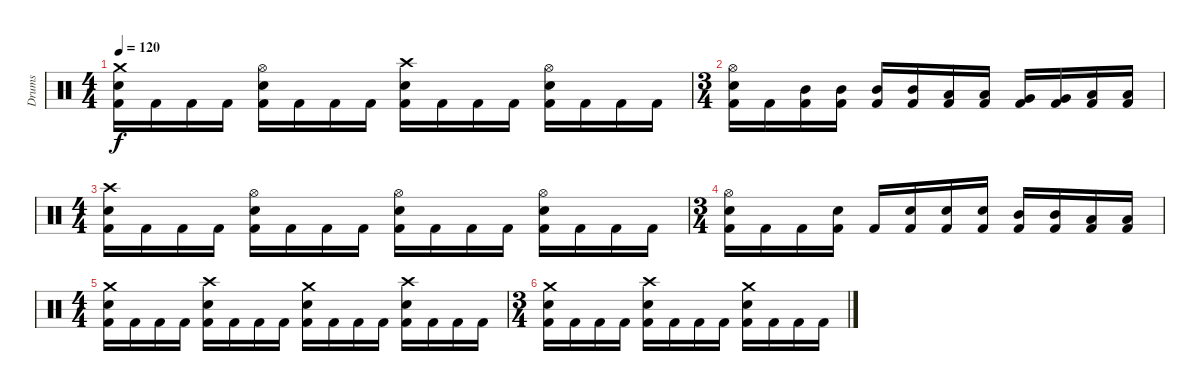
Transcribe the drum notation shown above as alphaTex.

\track ("Drums" "Drums") {instrument percussion}
\staff {score}
\articulation defaults
\ts (4 4)
\tempo 120
\clef neutral
\ks c
("Crash medium (hit)" "Snare (hit) 2" "Kick (hit) 2").16{dy f} "Kick (hit) 2".16 "Kick (hit) 2".16 "Kick (hit) 2".16 ("Hi-Hat (open)" "Snare (hit) 2" "Kick (hit) 2").16 "Kick (hit) 2".16 "Kick (hit) 2".16 "Kick (hit) 2".16 ("Crash high (hit)" "Snare (hit) 2" "Kick (hit) 2").16 "Kick (hit) 2".16 "Kick (hit) 2".16 "Kick (hit) 2".16 ("Hi-Hat (open)" "Snare (hit) 2" "Kick (hit) 2").16 "Kick (hit) 2".16 "Kick (hit) 2".16 "Kick (hit) 2".16 |
\ts (3 4)
("Hi-Hat (open)" "Snare (hit) 2" "Kick (hit) 2").16 "Kick (hit) 2".16 ("Mid Tom (hit)" "Kick (hit) 2").16 ("Mid Tom (hit)" "Kick (hit) 2").16 ("Mid Tom (hit)" "Kick (hit) 2").16 ("Mid Tom (hit)" "Kick (hit) 2").16 ("Low Tom (hit)" "Kick (hit) 2").16 ("Low Tom (hit)" "Kick (hit) 2").16 ("Very Low Tom (hit)" "Kick (hit) 2").16 ("Very Low Tom (hit)" "Kick (hit) 2").16 ("Low Floor Tom (hit)" "Kick (hit) 2").16 ("Low Floor Tom (hit)" "Kick (hit) 2").16 |
\ts (4 4)
("Crash high (hit)" "Snare (hit) 2" "Kick (hit) 2").16 "Kick (hit) 2".16 "Kick (hit) 2".16 "Kick (hit) 2".16 ("Hi-Hat (open)" "Snare (hit) 2" "Kick (hit) 2").16 "Kick (hit) 2".16 "Kick (hit) 2".16 "Kick (hit) 2".16 ("Hi-Hat (open)" "Snare (hit) 2" "Kick (hit) 2").16 "Kick (hit) 2".16 "Kick (hit) 2".16 "Kick (hit) 2".16 ("Hi-Hat (open)" "Snare (hit) 2" "Kick (hit) 2").16 "Kick (hit) 2".16 "Kick (hit) 2".16 "Kick (hit) 2".16 |
\ts (3 4)
("Hi-Hat (open)" "Snare (hit) 2" "Kick (hit) 2").16 "Kick (hit) 2".16 "Kick (hit) 2".16 ("Snare (hit) 2" "Kick (hit) 2").16 "Kick (hit) 2".16 ("Snare (hit) 2" "Kick (hit) 2").16 ("Snare (hit) 2" "Kick (hit) 2").16 ("Snare (hit) 2" "Kick (hit) 2").16 ("Mid Tom (hit)" "Kick (hit) 2").16 ("Mid Tom (hit)" "Kick (hit) 2").16 ("Low Tom (hit)" "Kick (hit) 2").16 ("Low Tom (hit)" "Kick (hit) 2").16 |
\ts (4 4)
("Crash medium (hit)" "Snare (hit) 2" "Kick (hit) 2").16 "Kick (hit) 2".16 "Kick (hit) 2".16 "Kick (hit) 2".16 ("Crash high (hit)" "Snare (hit) 2" "Kick (hit) 2").16 "Kick (hit) 2".16 "Kick (hit) 2".16 "Kick (hit) 2".16 ("Crash medium (hit)" "Snare (hit) 2" "Kick (hit) 2").16 "Kick (hit) 2".16 "Kick (hit) 2".16 "Kick (hit) 2".16 ("Crash high (hit)" "Snare (hit) 2" "Kick (hit) 2").16 "Kick (hit) 2".16 "Kick (hit) 2".16 "Kick (hit) 2".16 |
\ts (3 4)
("Crash medium (hit)" "Snare (hit) 2" "Kick (hit) 2").16 "Kick (hit) 2".16 "Kick (hit) 2".16 "Kick (hit) 2".16 ("Crash high (hit)" "Snare (hit) 2" "Kick (hit) 2").16 "Kick (hit) 2".16 "Kick (hit) 2".16 "Kick (hit) 2".16 ("Crash medium (hit)" "Snare (hit) 2" "Kick (hit) 2").16 "Kick (hit) 2".16 "Kick (hit) 2".16 "Kick (hit) 2".16
